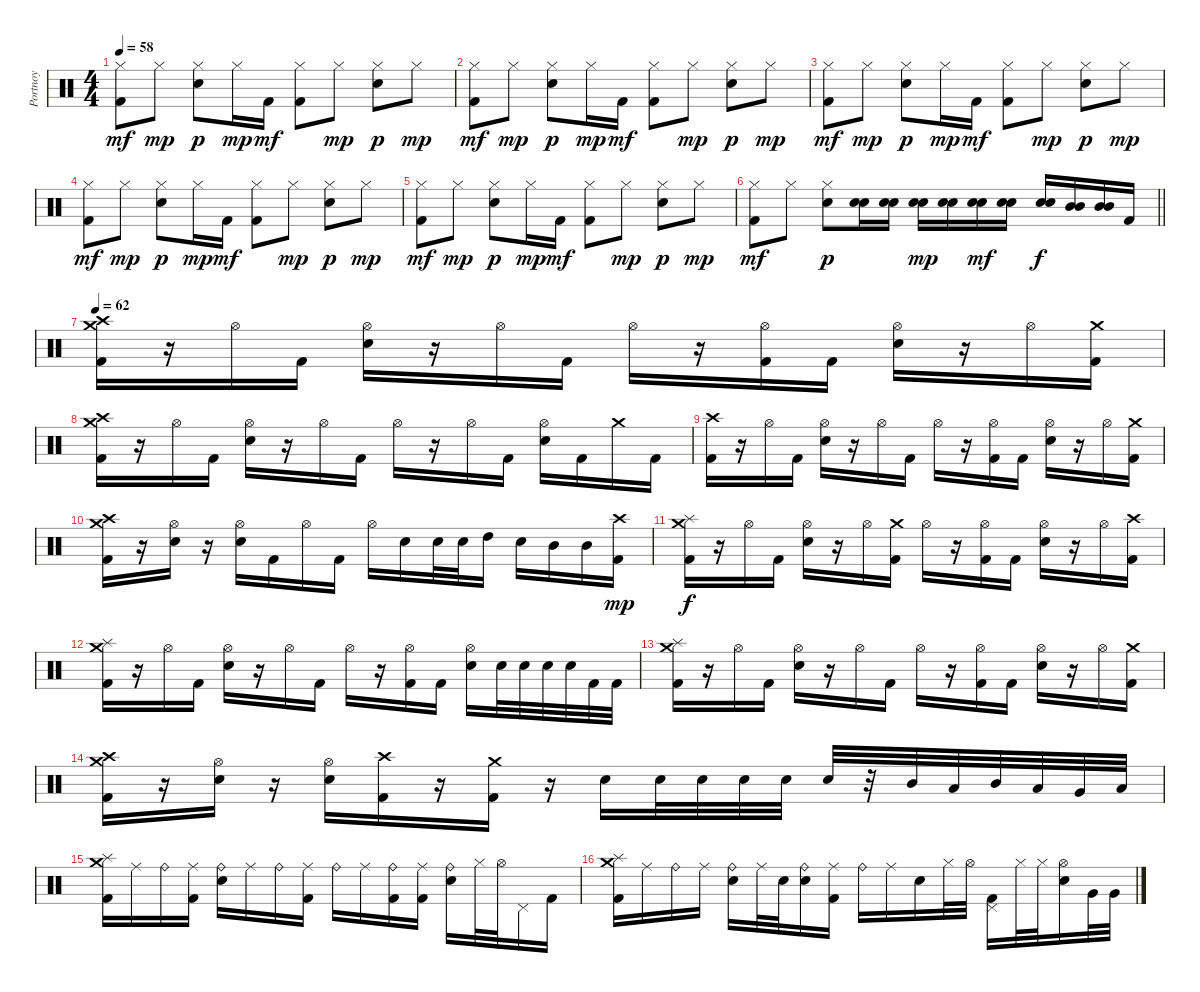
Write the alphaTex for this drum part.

\track ("Portnoy" "Portnoy") {instrument percussion}
\staff {score}
\articulation defaults
\ts (4 4)
\tempo 58
\clef neutral
\ks c
("Hi-Hat (closed)" "Kick (hit) 2").8{dy mf} "Hi-Hat (closed)".8{dy mp} ("Hi-Hat (closed)" "Electric Snare (hit)").8{dy p} "Hi-Hat (closed)".16{dy mp} "Kick (hit) 2".16{dy mf} ("Hi-Hat (closed)" "Kick (hit) 2").8 "Hi-Hat (closed)".8{dy mp} ("Hi-Hat (closed)" "Electric Snare (hit)").8{dy p} "Hi-Hat (closed)".8{dy mp} |
("Hi-Hat (closed)" "Kick (hit) 2").8{dy mf} "Hi-Hat (closed)".8{dy mp} ("Hi-Hat (closed)" "Electric Snare (hit)").8{dy p} "Hi-Hat (closed)".16{dy mp} "Kick (hit) 2".16{dy mf} ("Hi-Hat (closed)" "Kick (hit) 2").8 "Hi-Hat (closed)".8{dy mp} ("Hi-Hat (closed)" "Electric Snare (hit)").8{dy p} "Hi-Hat (closed)".8{dy mp} |
("Hi-Hat (closed)" "Kick (hit) 2").8{dy mf} "Hi-Hat (closed)".8{dy mp} ("Hi-Hat (closed)" "Electric Snare (hit)").8{dy p} "Hi-Hat (closed)".16{dy mp} "Kick (hit) 2".16{dy mf} ("Hi-Hat (closed)" "Kick (hit) 2").8 "Hi-Hat (closed)".8{dy mp} ("Hi-Hat (closed)" "Electric Snare (hit)").8{dy p} "Hi-Hat (closed)".8{dy mp} |
("Hi-Hat (closed)" "Kick (hit) 2").8{dy mf} "Hi-Hat (closed)".8{dy mp} ("Hi-Hat (closed)" "Electric Snare (hit)").8{dy p} "Hi-Hat (closed)".16{dy mp} "Kick (hit) 2".16{dy mf} ("Hi-Hat (closed)" "Kick (hit) 2").8 "Hi-Hat (closed)".8{dy mp} ("Hi-Hat (closed)" "Electric Snare (hit)").8{dy p} "Hi-Hat (closed)".8{dy mp} |
("Hi-Hat (closed)" "Kick (hit) 2").8{dy mf} "Hi-Hat (closed)".8{dy mp} ("Hi-Hat (closed)" "Electric Snare (hit)").8{dy p} "Hi-Hat (closed)".16{dy mp} "Kick (hit) 2".16{dy mf} ("Hi-Hat (closed)" "Kick (hit) 2").8 "Hi-Hat (closed)".8{dy mp} ("Hi-Hat (closed)" "Electric Snare (hit)").8{dy p} "Hi-Hat (closed)".8{dy mp} |
\barLineRight lightlight
("Hi-Hat (closed)" "Kick (hit) 2").8{dy mf} "Hi-Hat (closed)".8 ("Hi-Hat (closed)" "Electric Snare (hit)").8{dy p} ("Electric Snare (hit)" "Electric Snare (hit)").16 ("Electric Snare (hit)" "Electric Snare (hit)").16 ("Electric Snare (hit)" "Electric Snare (hit)").16{dy mp} ("Electric Snare (hit)" "Electric Snare (hit)").16 ("Electric Snare (hit)" "Electric Snare (hit)").16{dy mf} ("Electric Snare (hit)" "Electric Snare (hit)").16 ("Electric Snare (hit)" "Electric Snare (hit)").16{dy f} ("Mid Tom (hit)" "Mid Tom (hit)").16 ("Mid Tom (hit)" "Mid Tom (hit)").16 "Kick (hit) 2".16 |
\tempo 62
("Crash medium (hit)" "Crash high (hit)" "Kick (hit) 2").16{volume 16} r.16 "Hi-Hat (open)".16 "Kick (hit) 2".16 ("Hi-Hat (open)" "Electric Snare (hit)").16 r.16 "Hi-Hat (open)".16 "Kick (hit) 2".16 "Hi-Hat (open)".16 r.16 ("Hi-Hat (open)" "Kick (hit) 2").16 "Kick (hit) 2".16 ("Hi-Hat (open)" "Electric Snare (hit)").16 r.16 "Hi-Hat (open)".16 ("Crash medium (hit)" "Kick (hit) 2").16 |
("Crash medium (hit)" "Crash high (hit)" "Kick (hit) 2").16 r.16 "Hi-Hat (open)".16 "Kick (hit) 2".16 ("Hi-Hat (open)" "Electric Snare (hit)").16 r.16 "Hi-Hat (open)".16 "Kick (hit) 2".16 "Hi-Hat (open)".16 r.16 "Hi-Hat (open)".16 "Kick (hit) 2".16 ("Hi-Hat (open)" "Electric Snare (hit)").16 "Kick (hit) 2".16 "Crash medium (hit)".16 "Kick (hit) 2".16 |
("Crash high (hit)" "Kick (hit) 2").16 r.16 "Hi-Hat (open)".16 "Kick (hit) 2".16 ("Hi-Hat (open)" "Electric Snare (hit)").16 r.16 "Hi-Hat (open)".16 "Kick (hit) 2".16 "Hi-Hat (open)".16 r.16 ("Hi-Hat (open)" "Kick (hit) 2").16 "Kick (hit) 2".16 ("Hi-Hat (open)" "Electric Snare (hit)").16 r.16 "Hi-Hat (open)".16 ("Crash medium (hit)" "Kick (hit) 2").16 |
("Crash medium (hit)" "Crash high (hit)" "Kick (hit) 2").16 r.16 ("Hi-Hat (open)" "Electric Snare (hit)").16 r.16 ("Hi-Hat (open)" "Electric Snare (hit)").16 "Kick (hit) 2".16 "Hi-Hat (open)".16 "Kick (hit) 2".16 "Hi-Hat (open)".16 "Electric Snare (hit)".16 "Electric Snare (hit)".32 "Electric Snare (hit)".32 "High Tom (hit)".16 "Electric Snare (hit)".16 "Mid Tom (hit)".16 "Mid Tom (hit)".16 ("Crash high (hit)" "Kick (hit) 2").16{dy mp} |
("Crash medium (hit)" "Splash (hit)" "Kick (hit) 2").16{dy f} r.16 "Hi-Hat (open)".16 "Kick (hit) 2".16 ("Hi-Hat (open)" "Electric Snare (hit)").16 r.16 "Hi-Hat (open)".16 ("Crash medium (hit)" "Kick (hit) 2").16 "Hi-Hat (open)".16 r.16 ("Hi-Hat (open)" "Kick (hit) 2").16 "Kick (hit) 2".16 ("Hi-Hat (open)" "Electric Snare (hit)").16 r.16 "Hi-Hat (open)".16 ("Crash high (hit)" "Kick (hit) 2").16 |
("Crash medium (hit)" "Splash (hit)" "Kick (hit) 2").16 r.16 "Hi-Hat (open)".16 "Kick (hit) 2".16 ("Hi-Hat (open)" "Electric Snare (hit)").16 r.16 "Hi-Hat (open)".16 "Kick (hit) 2".16 "Hi-Hat (open)".16 r.16 ("Hi-Hat (open)" "Kick (hit) 2").16 "Kick (hit) 2".16 ("Hi-Hat (open)" "Electric Snare (hit)").16 "Electric Snare (hit)".32 "Electric Snare (hit)".32 "Electric Snare (hit)".32 "Electric Snare (hit)".32 "Kick (hit) 2".32 "Kick (hit) 2".32 |
("Crash medium (hit)" "Splash (hit)" "Kick (hit) 2").16 r.16 "Hi-Hat (open)".16 "Kick (hit) 2".16 ("Hi-Hat (open)" "Electric Snare (hit)").16 r.16 "Hi-Hat (open)".16 "Kick (hit) 2".16 "Hi-Hat (open)".16 r.16 ("Hi-Hat (open)" "Kick (hit) 2").16 "Kick (hit) 2".16 ("Hi-Hat (open)" "Electric Snare (hit)").16 r.16 "Hi-Hat (open)".16 ("Crash medium (hit)" "Kick (hit) 2").16 |
("Crash medium (hit)" "Crash high (hit)" "Kick (hit) 2").16 r.16 ("Hi-Hat (open)" "Electric Snare (hit)").16 r.16 ("Hi-Hat (open)" "Electric Snare (hit)").16 ("Crash high (hit)" "Kick (hit) 2").16 r.16 ("Crash medium (hit)" "Kick (hit) 2").16 r.16 "Electric Snare (hit)".16 "Electric Snare (hit)".32 "Electric Snare (hit)".32 "Electric Snare (hit)".32 "Electric Snare (hit)".32 "Electric Snare (hit)".32 r.32 "Mid Tom (hit)".32 "Low Tom (hit)".32 "Mid Tom (hit)".32 "Low Tom (hit)".32 "Very Low Tom (hit)".32 "Low Floor Tom (hit)".32 |
("Crash medium (hit)" "Splash (hit)" "Kick (hit) 2").16 "Ride (middle)".16 "Ride (bell)".16 ("Ride (middle)" "Kick (hit) 2").16 ("Ride (bell)" "Electric Snare (hit)").16 "Ride (middle)".16 "Ride (bell)".16 ("Ride (middle)" "Kick (hit) 2").16 "Ride (bell)".16 "Ride (middle)".16 ("Ride (bell)" "Kick (hit) 2").16 ("Ride (middle)" "Kick (hit) 2").16 ("Ride (bell)" "Electric Snare (hit)").16 "Hi-Hat (closed)".32 "Hi-Hat (open)".32 "Pedal Hi-Hat (hit)".16 "Kick (hit) 2".16 |
("Crash medium (hit)" "Splash (hit)" "Kick (hit) 2").16 "Ride (middle)".16 "Ride (bell)".16 "Ride (middle)".16 ("Ride (bell)" "Electric Snare (hit)").16 "Ride (middle)".32 "Electric Snare (hit)".32 ("Ride (bell)" "Electric Snare (hit)").16 ("Ride (middle)" "Kick (hit) 2").16 "Ride (bell)".16 "Ride (middle)".16 "Electric Snare (hit)".16 "Hi-Hat (closed)".32 "Hi-Hat (open)".32 ("Pedal Hi-Hat (hit)" "Kick (hit) 2").16 "Hi-Hat (closed)".32 "Hi-Hat (closed)".32 ("Hi-Hat (open)" "Electric Snare (hit)").16 "Very Low Tom (hit)".32 "Very Low Tom (hit)".32
